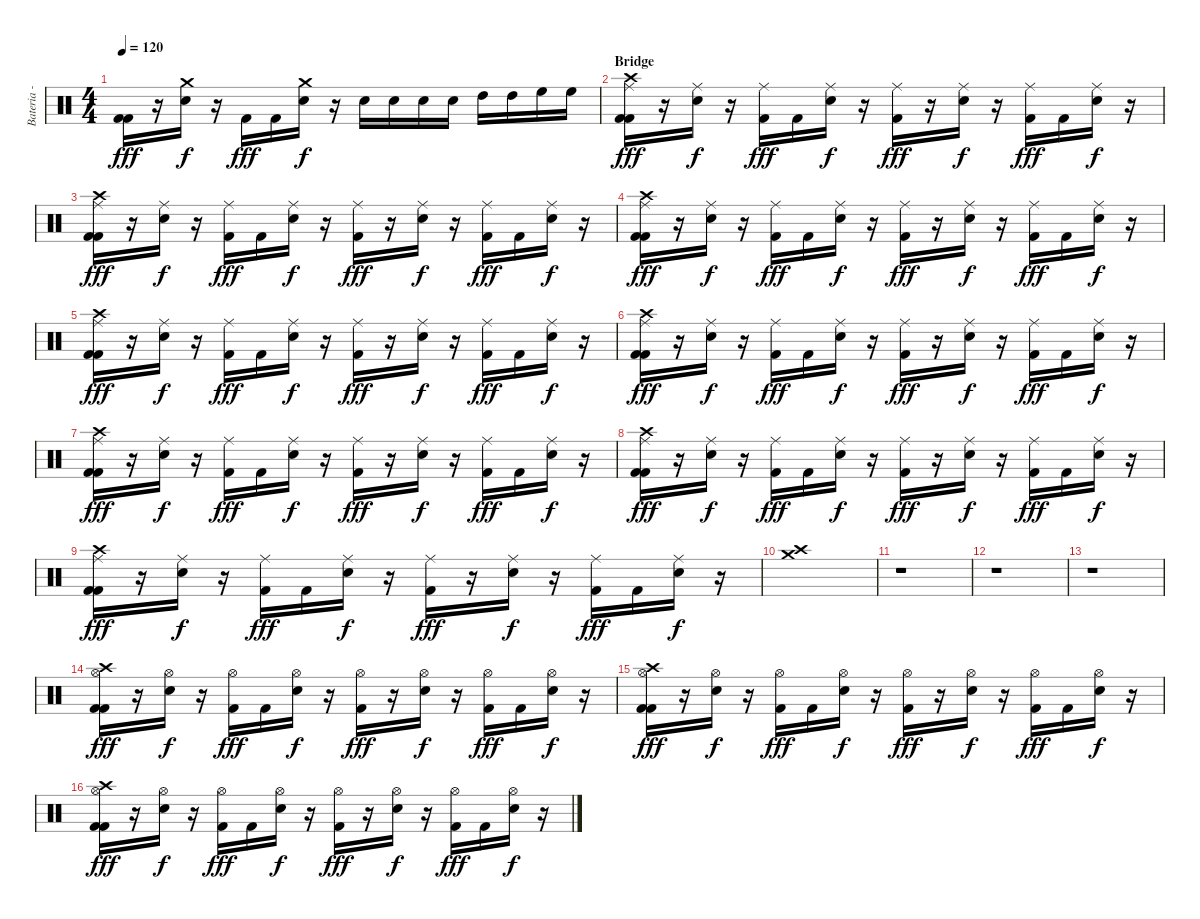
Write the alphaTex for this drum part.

\track ("Bateria - Larzon" "Bateria - ") {instrument percussion}
\staff {score}
\articulation defaults
\ts (4 4)
\tempo 120
\clef neutral
\ks c
("Kick (hit) 2" "Kick (hit) 2").16{dy fff} r.16 ("Snare (hit) 2" "Crash medium (hit)").16{dy f} r.16 "Kick (hit) 2".16{dy fff} "Kick (hit) 2".16 ("Snare (hit) 2" "Crash medium (hit)").16{dy f} r.16 "Snare (hit) 2".16 "Snare (hit) 2".16 "Snare (hit) 2".16 "Snare (hit) 2".16 "High Tom (hit)".16 "High Tom (hit)".16 "High Floor Tom (hit)".16 "High Floor Tom (hit)".16 |
\section ("" "Bridge")
("Kick (hit) 2" "Kick (hit) 2" "Crash high (hit)" "Ride (middle)").16{dy fff} r.16 ("Snare (hit) 2" "Ride (middle)").16{dy f} r.16 ("Kick (hit) 2" "Ride (middle)").16{dy fff} "Kick (hit) 2".16 ("Snare (hit) 2" "Ride (middle)").16{dy f} r.16 ("Kick (hit) 2" "Ride (middle)").16{dy fff} r.16 ("Snare (hit) 2" "Ride (middle)").16{dy f} r.16 ("Kick (hit) 2" "Ride (middle)").16{dy fff} "Kick (hit) 2".16 ("Snare (hit) 2" "Ride (middle)").16{dy f} r.16 |
("Kick (hit) 2" "Kick (hit) 2" "Crash high (hit)" "Ride (middle)").16{dy fff} r.16 ("Snare (hit) 2" "Ride (middle)").16{dy f} r.16 ("Kick (hit) 2" "Ride (middle)").16{dy fff} "Kick (hit) 2".16 ("Snare (hit) 2" "Ride (middle)").16{dy f} r.16 ("Kick (hit) 2" "Ride (middle)").16{dy fff} r.16 ("Snare (hit) 2" "Ride (middle)").16{dy f} r.16 ("Kick (hit) 2" "Ride (middle)").16{dy fff} "Kick (hit) 2".16 ("Snare (hit) 2" "Ride (middle)").16{dy f} r.16 |
("Kick (hit) 2" "Kick (hit) 2" "Crash high (hit)" "Ride (middle)").16{dy fff} r.16 ("Snare (hit) 2" "Ride (middle)").16{dy f} r.16 ("Kick (hit) 2" "Ride (middle)").16{dy fff} "Kick (hit) 2".16 ("Snare (hit) 2" "Ride (middle)").16{dy f} r.16 ("Kick (hit) 2" "Ride (middle)").16{dy fff} r.16 ("Snare (hit) 2" "Ride (middle)").16{dy f} r.16 ("Kick (hit) 2" "Ride (middle)").16{dy fff} "Kick (hit) 2".16 ("Snare (hit) 2" "Ride (middle)").16{dy f} r.16 |
("Kick (hit) 2" "Kick (hit) 2" "Crash high (hit)" "Ride (middle)").16{dy fff} r.16 ("Snare (hit) 2" "Ride (middle)").16{dy f} r.16 ("Kick (hit) 2" "Ride (middle)").16{dy fff} "Kick (hit) 2".16 ("Snare (hit) 2" "Ride (middle)").16{dy f} r.16 ("Kick (hit) 2" "Ride (middle)").16{dy fff} r.16 ("Snare (hit) 2" "Ride (middle)").16{dy f} r.16 ("Kick (hit) 2" "Ride (middle)").16{dy fff} "Kick (hit) 2".16 ("Snare (hit) 2" "Ride (middle)").16{dy f} r.16 |
("Kick (hit) 2" "Kick (hit) 2" "Crash high (hit)" "Ride (middle)").16{dy fff} r.16 ("Snare (hit) 2" "Ride (middle)").16{dy f} r.16 ("Kick (hit) 2" "Ride (middle)").16{dy fff} "Kick (hit) 2".16 ("Snare (hit) 2" "Ride (middle)").16{dy f} r.16 ("Kick (hit) 2" "Ride (middle)").16{dy fff} r.16 ("Snare (hit) 2" "Ride (middle)").16{dy f} r.16 ("Kick (hit) 2" "Ride (middle)").16{dy fff} "Kick (hit) 2".16 ("Snare (hit) 2" "Ride (middle)").16{dy f} r.16 |
("Kick (hit) 2" "Kick (hit) 2" "Crash high (hit)" "Ride (middle)").16{dy fff} r.16 ("Snare (hit) 2" "Ride (middle)").16{dy f} r.16 ("Kick (hit) 2" "Ride (middle)").16{dy fff} "Kick (hit) 2".16 ("Snare (hit) 2" "Ride (middle)").16{dy f} r.16 ("Kick (hit) 2" "Ride (middle)").16{dy fff} r.16 ("Snare (hit) 2" "Ride (middle)").16{dy f} r.16 ("Kick (hit) 2" "Ride (middle)").16{dy fff} "Kick (hit) 2".16 ("Snare (hit) 2" "Ride (middle)").16{dy f} r.16 |
("Kick (hit) 2" "Kick (hit) 2" "Crash high (hit)" "Ride (middle)").16{dy fff} r.16 ("Snare (hit) 2" "Ride (middle)").16{dy f} r.16 ("Kick (hit) 2" "Ride (middle)").16{dy fff} "Kick (hit) 2".16 ("Snare (hit) 2" "Ride (middle)").16{dy f} r.16 ("Kick (hit) 2" "Ride (middle)").16{dy fff} r.16 ("Snare (hit) 2" "Ride (middle)").16{dy f} r.16 ("Kick (hit) 2" "Ride (middle)").16{dy fff} "Kick (hit) 2".16 ("Snare (hit) 2" "Ride (middle)").16{dy f} r.16 |
("Kick (hit) 2" "Kick (hit) 2" "Crash high (hit)" "Ride (middle)").16{dy fff} r.16 ("Snare (hit) 2" "Ride (middle)").16{dy f} r.16 ("Kick (hit) 2" "Ride (middle)").16{dy fff} "Kick (hit) 2".16 ("Snare (hit) 2" "Ride (middle)").16{dy f} r.16 ("Kick (hit) 2" "Ride (middle)").16{dy fff} r.16 ("Snare (hit) 2" "Ride (middle)").16{dy f} r.16 ("Kick (hit) 2" "Ride (middle)").16{dy fff} "Kick (hit) 2".16 ("Snare (hit) 2" "Ride (middle)").16{dy f} r.16 |
("Crash high (hit)" "Crash medium (hit)").1 |
r.1 |
r.1 |
r.1 |
("Kick (hit) 2" "Kick (hit) 2" "Crash high (hit)" "Hi-Hat (open)").16{dy fff} r.16 ("Snare (hit) 2" "Hi-Hat (open)").16{dy f} r.16 ("Kick (hit) 2" "Hi-Hat (open)").16{dy fff} "Kick (hit) 2".16 ("Snare (hit) 2" "Hi-Hat (open)").16{dy f} r.16 ("Kick (hit) 2" "Hi-Hat (open)").16{dy fff} r.16 ("Snare (hit) 2" "Hi-Hat (open)").16{dy f} r.16 ("Kick (hit) 2" "Hi-Hat (open)").16{dy fff} "Kick (hit) 2".16 ("Snare (hit) 2" "Hi-Hat (open)").16{dy f} r.16 |
("Kick (hit) 2" "Kick (hit) 2" "Crash high (hit)" "Hi-Hat (open)").16{dy fff} r.16 ("Snare (hit) 2" "Hi-Hat (open)").16{dy f} r.16 ("Kick (hit) 2" "Hi-Hat (open)").16{dy fff} "Kick (hit) 2".16 ("Snare (hit) 2" "Hi-Hat (open)").16{dy f} r.16 ("Kick (hit) 2" "Hi-Hat (open)").16{dy fff} r.16 ("Snare (hit) 2" "Hi-Hat (open)").16{dy f} r.16 ("Kick (hit) 2" "Hi-Hat (open)").16{dy fff} "Kick (hit) 2".16 ("Snare (hit) 2" "Hi-Hat (open)").16{dy f} r.16 |
("Kick (hit) 2" "Kick (hit) 2" "Crash high (hit)" "Hi-Hat (open)").16{dy fff} r.16 ("Snare (hit) 2" "Hi-Hat (open)").16{dy f} r.16 ("Kick (hit) 2" "Hi-Hat (open)").16{dy fff} "Kick (hit) 2".16 ("Snare (hit) 2" "Hi-Hat (open)").16{dy f} r.16 ("Kick (hit) 2" "Hi-Hat (open)").16{dy fff} r.16 ("Snare (hit) 2" "Hi-Hat (open)").16{dy f} r.16 ("Kick (hit) 2" "Hi-Hat (open)").16{dy fff} "Kick (hit) 2".16 ("Snare (hit) 2" "Hi-Hat (open)").16{dy f} r.16
